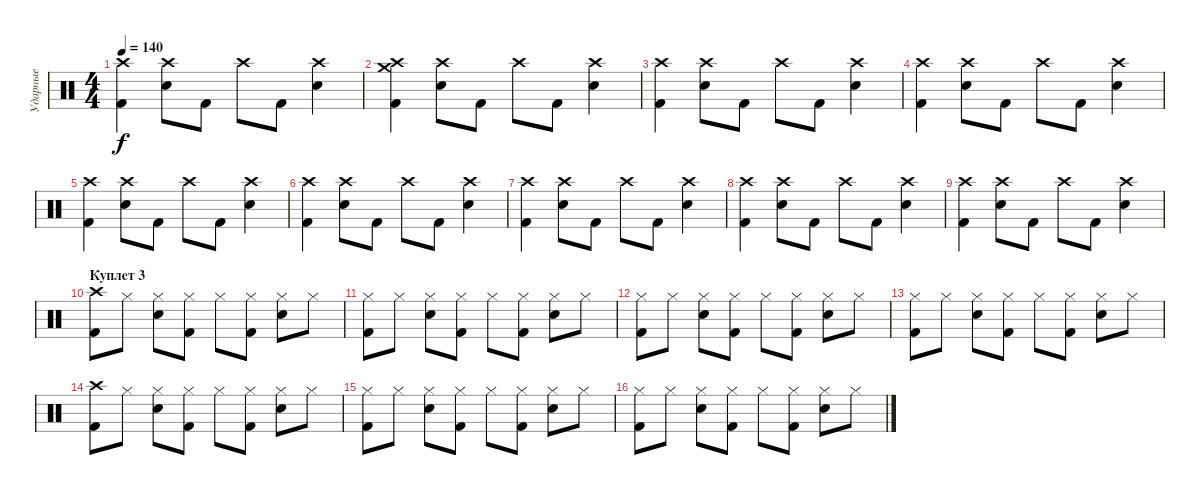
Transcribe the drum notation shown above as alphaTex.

\track ("Ударные" "Ударные") {instrument percussion}
\staff {score}
\articulation defaults
\ts (4 4)
\tempo 140
\clef neutral
\ks c
("Crash high (hit)" "Kick (hit) 2").4{dy f} ("Crash high (hit)" "Electric Snare (hit)").8 "Kick (hit) 2".8 "Crash high (hit)".8 "Kick (hit) 2".8 ("Crash high (hit)" "Electric Snare (hit)").4 |
("Crash high (hit)" "Crash medium (hit)" "Kick (hit) 2").4 ("Crash high (hit)" "Electric Snare (hit)").8 "Kick (hit) 2".8 "Crash high (hit)".8 "Kick (hit) 2".8 ("Crash high (hit)" "Electric Snare (hit)").4 |
("Crash high (hit)" "Kick (hit) 2").4 ("Crash high (hit)" "Electric Snare (hit)").8 "Kick (hit) 2".8 "Crash high (hit)".8 "Kick (hit) 2".8 ("Crash high (hit)" "Electric Snare (hit)").4 |
("Crash high (hit)" "Kick (hit) 2").4 ("Crash high (hit)" "Electric Snare (hit)").8 "Kick (hit) 2".8 "Crash high (hit)".8 "Kick (hit) 2".8 ("Crash high (hit)" "Electric Snare (hit)").4 |
("Crash high (hit)" "Kick (hit) 2").4 ("Crash high (hit)" "Electric Snare (hit)").8 "Kick (hit) 2".8 "Crash high (hit)".8 "Kick (hit) 2".8 ("Crash high (hit)" "Electric Snare (hit)").4 |
("Crash high (hit)" "Kick (hit) 2").4 ("Crash high (hit)" "Electric Snare (hit)").8 "Kick (hit) 2".8 "Crash high (hit)".8 "Kick (hit) 2".8 ("Crash high (hit)" "Electric Snare (hit)").4 |
("Crash high (hit)" "Kick (hit) 2").4 ("Crash high (hit)" "Electric Snare (hit)").8 "Kick (hit) 2".8 "Crash high (hit)".8 "Kick (hit) 2".8 ("Crash high (hit)" "Electric Snare (hit)").4 |
("Crash high (hit)" "Kick (hit) 2").4 ("Crash high (hit)" "Electric Snare (hit)").8 "Kick (hit) 2".8 "Crash high (hit)".8 "Kick (hit) 2".8 ("Crash high (hit)" "Electric Snare (hit)").4 |
("Crash high (hit)" "Kick (hit) 2").4 ("Crash high (hit)" "Electric Snare (hit)").8 "Kick (hit) 2".8 "Crash high (hit)".8 "Kick (hit) 2".8 ("Crash high (hit)" "Electric Snare (hit)").4 |
\section ("" "Куплет 3")
("Crash high (hit)" "Kick (hit) 2").8 "Hi-Hat (closed)".8 ("Hi-Hat (closed)" "Electric Snare (hit)").8 ("Hi-Hat (closed)" "Kick (hit) 2").8 "Hi-Hat (closed)".8 ("Hi-Hat (closed)" "Kick (hit) 2").8 ("Hi-Hat (closed)" "Electric Snare (hit)").8 "Hi-Hat (closed)".8 |
("Hi-Hat (closed)" "Kick (hit) 2").8 "Hi-Hat (closed)".8 ("Hi-Hat (closed)" "Electric Snare (hit)").8 ("Hi-Hat (closed)" "Kick (hit) 2").8 "Hi-Hat (closed)".8 ("Hi-Hat (closed)" "Kick (hit) 2").8 ("Hi-Hat (closed)" "Electric Snare (hit)").8 "Hi-Hat (closed)".8 |
("Hi-Hat (closed)" "Kick (hit) 2").8 "Hi-Hat (closed)".8 ("Hi-Hat (closed)" "Electric Snare (hit)").8 ("Hi-Hat (closed)" "Kick (hit) 2").8 "Hi-Hat (closed)".8 ("Hi-Hat (closed)" "Kick (hit) 2").8 ("Hi-Hat (closed)" "Electric Snare (hit)").8 "Hi-Hat (closed)".8 |
("Hi-Hat (closed)" "Kick (hit) 2").8 "Hi-Hat (closed)".8 ("Hi-Hat (closed)" "Electric Snare (hit)").8 ("Hi-Hat (closed)" "Kick (hit) 2").8 "Hi-Hat (closed)".8 ("Hi-Hat (closed)" "Kick (hit) 2").8 ("Hi-Hat (closed)" "Electric Snare (hit)").8 "Hi-Hat (closed)".8 |
("Crash high (hit)" "Kick (hit) 2").8 "Hi-Hat (closed)".8 ("Hi-Hat (closed)" "Electric Snare (hit)").8 ("Hi-Hat (closed)" "Kick (hit) 2").8 "Hi-Hat (closed)".8 ("Hi-Hat (closed)" "Kick (hit) 2").8 ("Hi-Hat (closed)" "Electric Snare (hit)").8 "Hi-Hat (closed)".8 |
("Hi-Hat (closed)" "Kick (hit) 2").8 "Hi-Hat (closed)".8 ("Hi-Hat (closed)" "Electric Snare (hit)").8 ("Hi-Hat (closed)" "Kick (hit) 2").8 "Hi-Hat (closed)".8 ("Hi-Hat (closed)" "Kick (hit) 2").8 ("Hi-Hat (closed)" "Electric Snare (hit)").8 "Hi-Hat (closed)".8 |
("Hi-Hat (closed)" "Kick (hit) 2").8 "Hi-Hat (closed)".8 ("Hi-Hat (closed)" "Electric Snare (hit)").8 ("Hi-Hat (closed)" "Kick (hit) 2").8 "Hi-Hat (closed)".8 ("Hi-Hat (closed)" "Kick (hit) 2").8 ("Hi-Hat (closed)" "Electric Snare (hit)").8 "Hi-Hat (closed)".8
